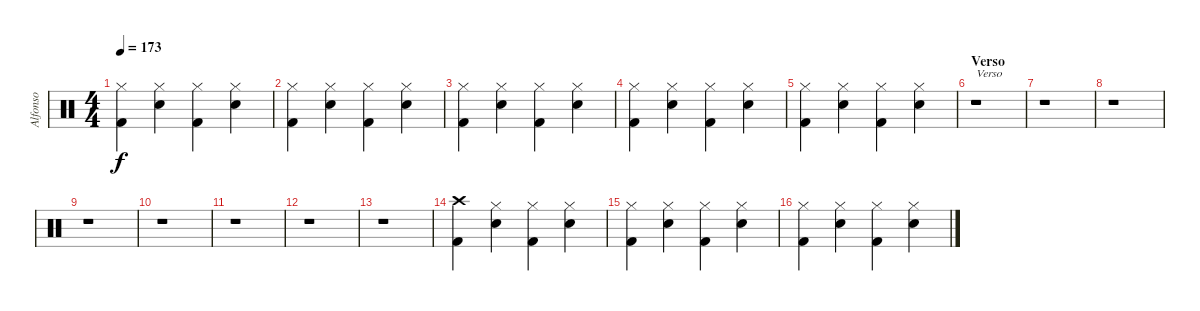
\track ("Alfonso" "Alfonso") {instrument percussion}
\staff {score}
\articulation defaults
\ts (4 4)
\tempo 173
\clef neutral
\ks c
("Kick (hit) 2" "Hi-Hat (closed)").4{dy f} ("Electric Snare (hit)" "Hi-Hat (closed)").4 ("Kick (hit) 2" "Hi-Hat (closed)").4 ("Electric Snare (hit)" "Hi-Hat (closed)").4 |
("Kick (hit) 2" "Hi-Hat (closed)").4 ("Electric Snare (hit)" "Hi-Hat (closed)").4 ("Kick (hit) 2" "Hi-Hat (closed)").4 ("Electric Snare (hit)" "Hi-Hat (closed)").4 |
("Kick (hit) 2" "Hi-Hat (closed)").4 ("Electric Snare (hit)" "Hi-Hat (closed)").4 ("Kick (hit) 2" "Hi-Hat (closed)").4 ("Electric Snare (hit)" "Hi-Hat (closed)").4 |
("Kick (hit) 2" "Hi-Hat (closed)").4 ("Electric Snare (hit)" "Hi-Hat (closed)").4 ("Kick (hit) 2" "Hi-Hat (closed)").4 ("Electric Snare (hit)" "Hi-Hat (closed)").4 |
("Kick (hit) 2" "Hi-Hat (closed)").4 ("Electric Snare (hit)" "Hi-Hat (closed)").4 ("Kick (hit) 2" "Hi-Hat (closed)").4 ("Electric Snare (hit)" "Hi-Hat (closed)").4 |
\section ("" "Verso")
r.1{txt "Verso"} |
r.1 |
r.1 |
r.1 |
r.1 |
r.1 |
r.1 |
r.1 |
("Kick (hit) 2" "Crash high (hit)").4 ("Electric Snare (hit)" "Hi-Hat (closed)").4 ("Kick (hit) 2" "Hi-Hat (closed)").4 ("Electric Snare (hit)" "Hi-Hat (closed)").4 |
("Kick (hit) 2" "Hi-Hat (closed)").4 ("Electric Snare (hit)" "Hi-Hat (closed)").4 ("Kick (hit) 2" "Hi-Hat (closed)").4 ("Electric Snare (hit)" "Hi-Hat (closed)").4 |
("Kick (hit) 2" "Hi-Hat (closed)").4 ("Electric Snare (hit)" "Hi-Hat (closed)").4 ("Kick (hit) 2" "Hi-Hat (closed)").4 ("Electric Snare (hit)" "Hi-Hat (closed)").4
